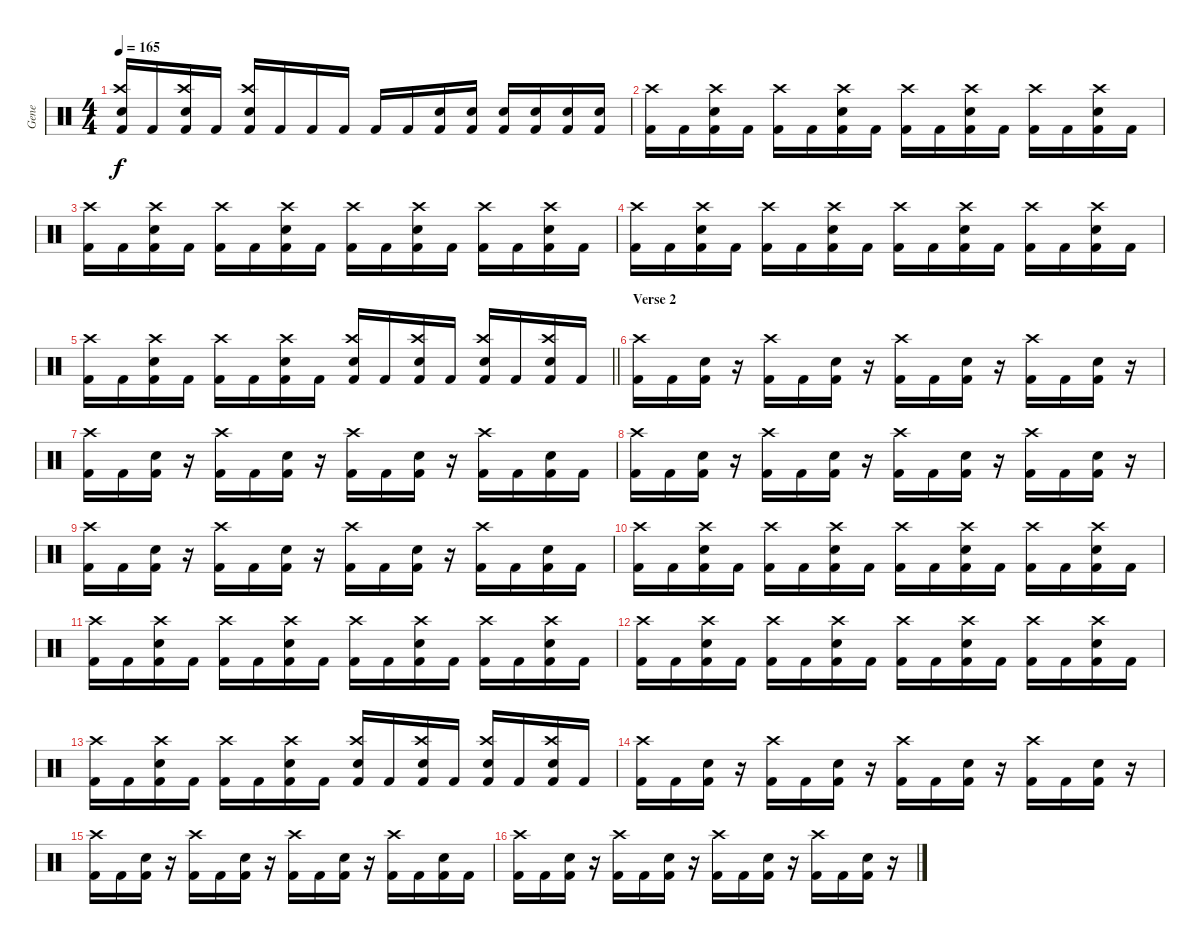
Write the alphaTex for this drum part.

\track ("Gene" "Gene") {instrument percussion}
\staff {score}
\articulation defaults
\ts (4 4)
\tempo 165
\clef neutral
\ks c
("Electric Snare (hit)" "Crash high (hit)" "Kick (hit) 2").16{dy f} "Kick (hit) 2".16 ("Electric Snare (hit)" "Crash high (hit)" "Kick (hit) 2").16 "Kick (hit) 2".16 ("Electric Snare (hit)" "Crash high (hit)" "Kick (hit) 2").16 "Kick (hit) 2".16 "Kick (hit) 2".16 "Kick (hit) 2".16 "Kick (hit) 2".16 "Kick (hit) 2".16 ("Electric Snare (hit)" "Kick (hit) 2").16 ("Electric Snare (hit)" "Kick (hit) 2").16 ("Electric Snare (hit)" "Kick (hit) 2").16 ("Electric Snare (hit)" "Kick (hit) 2").16 ("Electric Snare (hit)" "Kick (hit) 2").16 ("Electric Snare (hit)" "Kick (hit) 2").16 |
("Crash high (hit)" "Kick (hit) 2").16 "Kick (hit) 2".16 ("Crash high (hit)" "Electric Snare (hit)" "Kick (hit) 2").16 "Kick (hit) 2".16 ("Crash high (hit)" "Kick (hit) 2").16 "Kick (hit) 2".16 ("Crash high (hit)" "Electric Snare (hit)" "Kick (hit) 2").16 "Kick (hit) 2".16 ("Crash high (hit)" "Kick (hit) 2").16 "Kick (hit) 2".16 ("Crash high (hit)" "Electric Snare (hit)" "Kick (hit) 2").16 "Kick (hit) 2".16 ("Crash high (hit)" "Kick (hit) 2").16 "Kick (hit) 2".16 ("Crash high (hit)" "Electric Snare (hit)" "Kick (hit) 2").16 "Kick (hit) 2".16 |
("Crash high (hit)" "Kick (hit) 2").16 "Kick (hit) 2".16 ("Crash high (hit)" "Electric Snare (hit)" "Kick (hit) 2").16 "Kick (hit) 2".16 ("Crash high (hit)" "Kick (hit) 2").16 "Kick (hit) 2".16 ("Crash high (hit)" "Electric Snare (hit)" "Kick (hit) 2").16 "Kick (hit) 2".16 ("Crash high (hit)" "Kick (hit) 2").16 "Kick (hit) 2".16 ("Crash high (hit)" "Electric Snare (hit)" "Kick (hit) 2").16 "Kick (hit) 2".16 ("Crash high (hit)" "Kick (hit) 2").16 "Kick (hit) 2".16 ("Crash high (hit)" "Electric Snare (hit)" "Kick (hit) 2").16 "Kick (hit) 2".16 |
("Crash high (hit)" "Kick (hit) 2").16 "Kick (hit) 2".16 ("Crash high (hit)" "Electric Snare (hit)" "Kick (hit) 2").16 "Kick (hit) 2".16 ("Crash high (hit)" "Kick (hit) 2").16 "Kick (hit) 2".16 ("Crash high (hit)" "Electric Snare (hit)" "Kick (hit) 2").16 "Kick (hit) 2".16 ("Crash high (hit)" "Kick (hit) 2").16 "Kick (hit) 2".16 ("Crash high (hit)" "Electric Snare (hit)" "Kick (hit) 2").16 "Kick (hit) 2".16 ("Crash high (hit)" "Kick (hit) 2").16 "Kick (hit) 2".16 ("Crash high (hit)" "Electric Snare (hit)" "Kick (hit) 2").16 "Kick (hit) 2".16 |
\barLineRight lightlight
("Crash high (hit)" "Kick (hit) 2").16 "Kick (hit) 2".16 ("Crash high (hit)" "Electric Snare (hit)" "Kick (hit) 2").16 "Kick (hit) 2".16 ("Crash high (hit)" "Kick (hit) 2").16 "Kick (hit) 2".16 ("Crash high (hit)" "Electric Snare (hit)" "Kick (hit) 2").16 "Kick (hit) 2".16 ("Crash high (hit)" "Electric Snare (hit)" "Kick (hit) 2").16 "Kick (hit) 2".16 ("Crash high (hit)" "Electric Snare (hit)" "Kick (hit) 2").16 "Kick (hit) 2".16 ("Crash high (hit)" "Electric Snare (hit)" "Kick (hit) 2").16 "Kick (hit) 2".16 ("Crash high (hit)" "Electric Snare (hit)" "Kick (hit) 2").16 "Kick (hit) 2".16 |
\section ("" "Verse 2")
("Crash high (hit)" "Kick (hit) 2").16 "Kick (hit) 2".16 ("Electric Snare (hit)" "Kick (hit) 2").16 r.16 ("Crash high (hit)" "Kick (hit) 2").16 "Kick (hit) 2".16 ("Electric Snare (hit)" "Kick (hit) 2").16 r.16 ("Crash high (hit)" "Kick (hit) 2").16 "Kick (hit) 2".16 ("Electric Snare (hit)" "Kick (hit) 2").16 r.16 ("Crash high (hit)" "Kick (hit) 2").16 "Kick (hit) 2".16 ("Electric Snare (hit)" "Kick (hit) 2").16 r.16 |
("Crash high (hit)" "Kick (hit) 2").16 "Kick (hit) 2".16 ("Electric Snare (hit)" "Kick (hit) 2").16 r.16 ("Crash high (hit)" "Kick (hit) 2").16 "Kick (hit) 2".16 ("Electric Snare (hit)" "Kick (hit) 2").16 r.16 ("Crash high (hit)" "Kick (hit) 2").16 "Kick (hit) 2".16 ("Electric Snare (hit)" "Kick (hit) 2").16 r.16 ("Crash high (hit)" "Kick (hit) 2").16 "Kick (hit) 2".16 ("Electric Snare (hit)" "Kick (hit) 2").16 "Kick (hit) 2".16 |
("Crash high (hit)" "Kick (hit) 2").16 "Kick (hit) 2".16 ("Electric Snare (hit)" "Kick (hit) 2").16 r.16 ("Crash high (hit)" "Kick (hit) 2").16 "Kick (hit) 2".16 ("Electric Snare (hit)" "Kick (hit) 2").16 r.16 ("Crash high (hit)" "Kick (hit) 2").16 "Kick (hit) 2".16 ("Electric Snare (hit)" "Kick (hit) 2").16 r.16 ("Crash high (hit)" "Kick (hit) 2").16 "Kick (hit) 2".16 ("Electric Snare (hit)" "Kick (hit) 2").16 r.16 |
("Crash high (hit)" "Kick (hit) 2").16 "Kick (hit) 2".16 ("Electric Snare (hit)" "Kick (hit) 2").16 r.16 ("Crash high (hit)" "Kick (hit) 2").16 "Kick (hit) 2".16 ("Electric Snare (hit)" "Kick (hit) 2").16 r.16 ("Crash high (hit)" "Kick (hit) 2").16 "Kick (hit) 2".16 ("Electric Snare (hit)" "Kick (hit) 2").16 r.16 ("Crash high (hit)" "Kick (hit) 2").16 "Kick (hit) 2".16 ("Electric Snare (hit)" "Kick (hit) 2").16 "Kick (hit) 2".16 |
("Crash high (hit)" "Kick (hit) 2").16 "Kick (hit) 2".16 ("Crash high (hit)" "Electric Snare (hit)" "Kick (hit) 2").16 "Kick (hit) 2".16 ("Crash high (hit)" "Kick (hit) 2").16 "Kick (hit) 2".16 ("Crash high (hit)" "Electric Snare (hit)" "Kick (hit) 2").16 "Kick (hit) 2".16 ("Crash high (hit)" "Kick (hit) 2").16 "Kick (hit) 2".16 ("Crash high (hit)" "Electric Snare (hit)" "Kick (hit) 2").16 "Kick (hit) 2".16 ("Crash high (hit)" "Kick (hit) 2").16 "Kick (hit) 2".16 ("Crash high (hit)" "Electric Snare (hit)" "Kick (hit) 2").16 "Kick (hit) 2".16 |
("Crash high (hit)" "Kick (hit) 2").16 "Kick (hit) 2".16 ("Crash high (hit)" "Electric Snare (hit)" "Kick (hit) 2").16 "Kick (hit) 2".16 ("Crash high (hit)" "Kick (hit) 2").16 "Kick (hit) 2".16 ("Crash high (hit)" "Electric Snare (hit)" "Kick (hit) 2").16 "Kick (hit) 2".16 ("Crash high (hit)" "Kick (hit) 2").16 "Kick (hit) 2".16 ("Crash high (hit)" "Electric Snare (hit)" "Kick (hit) 2").16 "Kick (hit) 2".16 ("Crash high (hit)" "Kick (hit) 2").16 "Kick (hit) 2".16 ("Crash high (hit)" "Electric Snare (hit)" "Kick (hit) 2").16 "Kick (hit) 2".16 |
("Crash high (hit)" "Kick (hit) 2").16 "Kick (hit) 2".16 ("Crash high (hit)" "Electric Snare (hit)" "Kick (hit) 2").16 "Kick (hit) 2".16 ("Crash high (hit)" "Kick (hit) 2").16 "Kick (hit) 2".16 ("Crash high (hit)" "Electric Snare (hit)" "Kick (hit) 2").16 "Kick (hit) 2".16 ("Crash high (hit)" "Kick (hit) 2").16 "Kick (hit) 2".16 ("Crash high (hit)" "Electric Snare (hit)" "Kick (hit) 2").16 "Kick (hit) 2".16 ("Crash high (hit)" "Kick (hit) 2").16 "Kick (hit) 2".16 ("Crash high (hit)" "Electric Snare (hit)" "Kick (hit) 2").16 "Kick (hit) 2".16 |
("Crash high (hit)" "Kick (hit) 2").16 "Kick (hit) 2".16 ("Crash high (hit)" "Electric Snare (hit)" "Kick (hit) 2").16 "Kick (hit) 2".16 ("Crash high (hit)" "Kick (hit) 2").16 "Kick (hit) 2".16 ("Crash high (hit)" "Electric Snare (hit)" "Kick (hit) 2").16 "Kick (hit) 2".16 ("Crash high (hit)" "Electric Snare (hit)" "Kick (hit) 2").16 "Kick (hit) 2".16 ("Crash high (hit)" "Electric Snare (hit)" "Kick (hit) 2").16 "Kick (hit) 2".16 ("Crash high (hit)" "Electric Snare (hit)" "Kick (hit) 2").16 "Kick (hit) 2".16 ("Crash high (hit)" "Electric Snare (hit)" "Kick (hit) 2").16 "Kick (hit) 2".16 |
("Crash high (hit)" "Kick (hit) 2").16 "Kick (hit) 2".16 ("Electric Snare (hit)" "Kick (hit) 2").16 r.16 ("Crash high (hit)" "Kick (hit) 2").16 "Kick (hit) 2".16 ("Electric Snare (hit)" "Kick (hit) 2").16 r.16 ("Crash high (hit)" "Kick (hit) 2").16 "Kick (hit) 2".16 ("Electric Snare (hit)" "Kick (hit) 2").16 r.16 ("Crash high (hit)" "Kick (hit) 2").16 "Kick (hit) 2".16 ("Electric Snare (hit)" "Kick (hit) 2").16 r.16 |
("Crash high (hit)" "Kick (hit) 2").16 "Kick (hit) 2".16 ("Electric Snare (hit)" "Kick (hit) 2").16 r.16 ("Crash high (hit)" "Kick (hit) 2").16 "Kick (hit) 2".16 ("Electric Snare (hit)" "Kick (hit) 2").16 r.16 ("Crash high (hit)" "Kick (hit) 2").16 "Kick (hit) 2".16 ("Electric Snare (hit)" "Kick (hit) 2").16 r.16 ("Crash high (hit)" "Kick (hit) 2").16 "Kick (hit) 2".16 ("Electric Snare (hit)" "Kick (hit) 2").16 "Kick (hit) 2".16 |
("Crash high (hit)" "Kick (hit) 2").16 "Kick (hit) 2".16 ("Electric Snare (hit)" "Kick (hit) 2").16 r.16 ("Crash high (hit)" "Kick (hit) 2").16 "Kick (hit) 2".16 ("Electric Snare (hit)" "Kick (hit) 2").16 r.16 ("Crash high (hit)" "Kick (hit) 2").16 "Kick (hit) 2".16 ("Electric Snare (hit)" "Kick (hit) 2").16 r.16 ("Crash high (hit)" "Kick (hit) 2").16 "Kick (hit) 2".16 ("Electric Snare (hit)" "Kick (hit) 2").16 r.16
